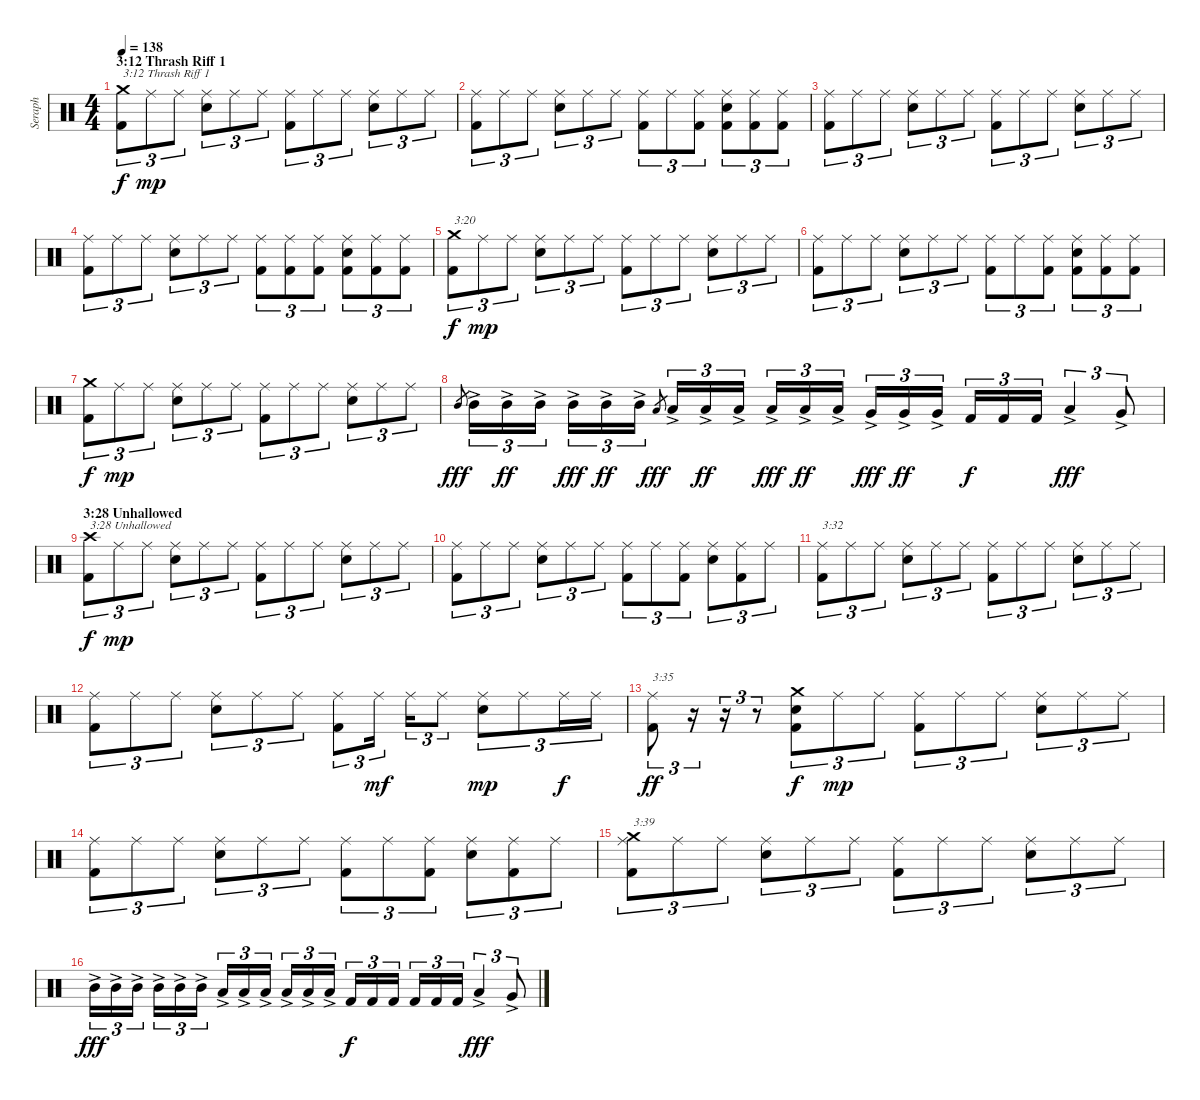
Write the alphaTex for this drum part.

\track ("Seraph" "Seraph") {instrument percussion}
\staff {score}
\articulation defaults
\ts (4 4)
\section ("" "3:12 Thrash Riff 1")
\tempo 138
\clef neutral
\ks c
("Kick (hit) 2" "Crash medium (hit)").8{tu (3 2) txt "3:12 Thrash Riff 1" dy f} "Ride (middle)".8{tu (3 2) dy mp} "Ride (middle)".8{tu (3 2)} ("Electric Snare (hit)" "Ride (middle)").8{tu (3 2)} "Ride (middle)".8{tu (3 2)} "Ride (middle)".8{tu (3 2)} ("Kick (hit) 2" "Ride (middle)").8{tu (3 2)} "Ride (middle)".8{tu (3 2)} "Ride (middle)".8{tu (3 2)} ("Electric Snare (hit)" "Ride (middle)").8{tu (3 2)} "Ride (middle)".8{tu (3 2)} "Ride (middle)".8{tu (3 2)} |
("Kick (hit) 2" "Ride (middle)").8{tu (3 2)} "Ride (middle)".8{tu (3 2)} "Ride (middle)".8{tu (3 2)} ("Electric Snare (hit)" "Ride (middle)").8{tu (3 2)} "Ride (middle)".8{tu (3 2)} "Ride (middle)".8{tu (3 2)} ("Kick (hit) 2" "Ride (middle)").8{tu (3 2)} "Ride (middle)".8{tu (3 2)} ("Kick (hit) 2" "Ride (middle)").8{tu (3 2)} ("Kick (hit) 2" "Electric Snare (hit)" "Ride (middle)").8{tu (3 2)} ("Kick (hit) 2" "Ride (middle)").8{tu (3 2)} ("Kick (hit) 2" "Ride (middle)").8{tu (3 2)} |
("Kick (hit) 2" "Ride (middle)").8{tu (3 2)} "Ride (middle)".8{tu (3 2)} "Ride (middle)".8{tu (3 2)} ("Electric Snare (hit)" "Ride (middle)").8{tu (3 2)} "Ride (middle)".8{tu (3 2)} "Ride (middle)".8{tu (3 2)} ("Kick (hit) 2" "Ride (middle)").8{tu (3 2)} "Ride (middle)".8{tu (3 2)} "Ride (middle)".8{tu (3 2)} ("Electric Snare (hit)" "Ride (middle)").8{tu (3 2)} "Ride (middle)".8{tu (3 2)} "Ride (middle)".8{tu (3 2)} |
("Kick (hit) 2" "Ride (middle)").8{tu (3 2)} "Ride (middle)".8{tu (3 2)} "Ride (middle)".8{tu (3 2)} ("Electric Snare (hit)" "Ride (middle)").8{tu (3 2)} "Ride (middle)".8{tu (3 2)} "Ride (middle)".8{tu (3 2)} ("Kick (hit) 2" "Ride (middle)").8{tu (3 2)} ("Kick (hit) 2" "Ride (middle)").8{tu (3 2)} ("Kick (hit) 2" "Ride (middle)").8{tu (3 2)} ("Kick (hit) 2" "Electric Snare (hit)" "Ride (middle)").8{tu (3 2)} ("Kick (hit) 2" "Ride (middle)").8{tu (3 2)} ("Kick (hit) 2" "Ride (middle)").8{tu (3 2)} |
("Kick (hit) 2" "Crash medium (hit)").8{tu (3 2) txt "3:20" dy f} "Ride (middle)".8{tu (3 2) dy mp} "Ride (middle)".8{tu (3 2)} ("Electric Snare (hit)" "Ride (middle)").8{tu (3 2)} "Ride (middle)".8{tu (3 2)} "Ride (middle)".8{tu (3 2)} ("Kick (hit) 2" "Ride (middle)").8{tu (3 2)} "Ride (middle)".8{tu (3 2)} "Ride (middle)".8{tu (3 2)} ("Electric Snare (hit)" "Ride (middle)").8{tu (3 2)} "Ride (middle)".8{tu (3 2)} "Ride (middle)".8{tu (3 2)} |
("Kick (hit) 2" "Ride (middle)").8{tu (3 2)} "Ride (middle)".8{tu (3 2)} "Ride (middle)".8{tu (3 2)} ("Electric Snare (hit)" "Ride (middle)").8{tu (3 2)} "Ride (middle)".8{tu (3 2)} "Ride (middle)".8{tu (3 2)} ("Kick (hit) 2" "Ride (middle)").8{tu (3 2)} "Ride (middle)".8{tu (3 2)} ("Kick (hit) 2" "Ride (middle)").8{tu (3 2)} ("Kick (hit) 2" "Electric Snare (hit)" "Ride (middle)").8{tu (3 2)} ("Kick (hit) 2" "Ride (middle)").8{tu (3 2)} ("Kick (hit) 2" "Ride (middle)").8{tu (3 2)} |
("Kick (hit) 2" "Crash medium (hit)").8{tu (3 2) dy f} "Ride (middle)".8{tu (3 2) dy mp} "Ride (middle)".8{tu (3 2)} ("Electric Snare (hit)" "Ride (middle)").8{tu (3 2)} "Ride (middle)".8{tu (3 2)} "Ride (middle)".8{tu (3 2)} ("Kick (hit) 2" "Ride (middle)").8{tu (3 2)} "Ride (middle)".8{tu (3 2)} "Ride (middle)".8{tu (3 2)} ("Electric Snare (hit)" "Ride (middle)").8{tu (3 2)} "Ride (middle)".8{tu (3 2)} "Ride (middle)".8{tu (3 2)} |
"Mid Tom (hit)".8{gr dy fff} "Mid Tom (hit)"{ac}.16{tu (3 2)} "Mid Tom (hit)"{ac}.16{tu (3 2) dy ff} "Mid Tom (hit)"{ac}.16{tu (3 2)} "Mid Tom (hit)"{ac}.16{tu (3 2) dy fff} "Mid Tom (hit)"{ac}.16{tu (3 2) dy ff} "Mid Tom (hit)"{ac}.16{tu (3 2)} "Low Tom (hit)".8{gr dy fff} "Low Tom (hit)"{ac}.16{tu (3 2)} "Low Tom (hit)"{ac}.16{tu (3 2) dy ff} "Low Tom (hit)"{ac}.16{tu (3 2)} "Low Tom (hit)"{ac}.16{tu (3 2) dy fff} "Low Tom (hit)"{ac}.16{tu (3 2) dy ff} "Low Tom (hit)"{ac}.16{tu (3 2)} "Very Low Tom (hit)"{ac}.16{tu (3 2) dy fff} "Very Low Tom (hit)"{ac}.16{tu (3 2) dy ff} "Very Low Tom (hit)"{ac}.16{tu (3 2)} "Kick (hit) 2".16{tu (3 2) dy f} "Kick (hit) 2".16{tu (3 2)} "Kick (hit) 2".16{tu (3 2)} "Low Tom (hit)"{ac}.4{tu (3 2) dy fff} "Very Low Tom (hit)"{ac}.8{tu (3 2)} |
\section ("" "3:28 Unhallowed")
("Kick (hit) 2" "Crash high (hit)").8{tu (3 2) txt "3:28 Unhallowed" dy f} "Ride (middle)".8{tu (3 2) dy mp} "Ride (middle)".8{tu (3 2)} ("Electric Snare (hit)" "Ride (middle)").8{tu (3 2)} "Ride (middle)".8{tu (3 2)} "Ride (middle)".8{tu (3 2)} ("Kick (hit) 2" "Ride (middle)").8{tu (3 2)} "Ride (middle)".8{tu (3 2)} "Ride (middle)".8{tu (3 2)} ("Electric Snare (hit)" "Ride (middle)").8{tu (3 2)} "Ride (middle)".8{tu (3 2)} "Ride (middle)".8{tu (3 2)} |
("Kick (hit) 2" "Ride (middle)").8{tu (3 2)} "Ride (middle)".8{tu (3 2)} "Ride (middle)".8{tu (3 2)} ("Electric Snare (hit)" "Ride (middle)").8{tu (3 2)} "Ride (middle)".8{tu (3 2)} "Ride (middle)".8{tu (3 2)} ("Kick (hit) 2" "Ride (middle)").8{tu (3 2)} "Ride (middle)".8{tu (3 2)} ("Kick (hit) 2" "Ride (middle)").8{tu (3 2)} ("Electric Snare (hit)" "Ride (middle)").8{tu (3 2)} ("Kick (hit) 2" "Ride (middle)").8{tu (3 2)} "Ride (middle)".8{tu (3 2)} |
("Kick (hit) 2" "Ride (middle)").8{tu (3 2) txt "3:32"} "Ride (middle)".8{tu (3 2)} "Ride (middle)".8{tu (3 2)} ("Electric Snare (hit)" "Ride (middle)").8{tu (3 2)} "Ride (middle)".8{tu (3 2)} "Ride (middle)".8{tu (3 2)} ("Kick (hit) 2" "Ride (middle)").8{tu (3 2)} "Ride (middle)".8{tu (3 2)} "Ride (middle)".8{tu (3 2)} ("Electric Snare (hit)" "Ride (middle)").8{tu (3 2)} "Ride (middle)".8{tu (3 2)} "Ride (middle)".8{tu (3 2)} |
("Kick (hit) 2" "Ride (middle)").8{tu (3 2)} "Ride (middle)".8{tu (3 2)} "Ride (middle)".8{tu (3 2)} ("Electric Snare (hit)" "Ride (middle)").8{tu (3 2)} "Ride (middle)".8{tu (3 2)} "Ride (middle)".8{tu (3 2)} ("Kick (hit) 2" "Ride (middle)").8{tu (3 2)} "Ride (middle)".16{tu (3 2) dy mf} "Ride (middle)".16{tu (3 2)} "Ride (middle)".8{tu (3 2)} ("Electric Snare (hit)" "Ride (middle)").8{tu (3 2) dy mp} "Ride (middle)".8{tu (3 2)} "Ride (middle)".16{tu (3 2) dy f} "Ride (middle)".16{tu (3 2)} |
("Kick (hit) 2" "Ride (middle)").8{tu (3 2) txt "3:35" dy ff} r.16{tu (3 2)} r.16{tu (3 2)} r.8{tu (3 2)} ("Kick (hit) 2" "Electric Snare (hit)" "Crash medium (hit)").8{tu (3 2) dy f} "Ride (middle)".8{tu (3 2) dy mp} "Ride (middle)".8{tu (3 2)} ("Kick (hit) 2" "Ride (middle)").8{tu (3 2)} "Ride (middle)".8{tu (3 2)} "Ride (middle)".8{tu (3 2)} ("Electric Snare (hit)" "Ride (middle)").8{tu (3 2)} "Ride (middle)".8{tu (3 2)} "Ride (middle)".8{tu (3 2)} |
("Kick (hit) 2" "Ride (middle)").8{tu (3 2)} "Ride (middle)".8{tu (3 2)} "Ride (middle)".8{tu (3 2)} ("Electric Snare (hit)" "Ride (middle)").8{tu (3 2)} "Ride (middle)".8{tu (3 2)} "Ride (middle)".8{tu (3 2)} ("Kick (hit) 2" "Ride (middle)").8{tu (3 2)} "Ride (middle)".8{tu (3 2)} ("Kick (hit) 2" "Ride (middle)").8{tu (3 2)} ("Electric Snare (hit)" "Ride (middle)").8{tu (3 2)} ("Kick (hit) 2" "Ride (middle)").8{tu (3 2)} "Ride (middle)".8{tu (3 2)} |
("Kick (hit) 2" "Ride (middle)" "Crash medium (hit)").8{tu (3 2) txt "3:39"} "Ride (middle)".8{tu (3 2)} "Ride (middle)".8{tu (3 2)} ("Electric Snare (hit)" "Ride (middle)").8{tu (3 2)} "Ride (middle)".8{tu (3 2)} "Ride (middle)".8{tu (3 2)} ("Kick (hit) 2" "Ride (middle)").8{tu (3 2)} "Ride (middle)".8{tu (3 2)} "Ride (middle)".8{tu (3 2)} ("Electric Snare (hit)" "Ride (middle)").8{tu (3 2)} "Ride (middle)".8{tu (3 2)} "Ride (middle)".8{tu (3 2)} |
"Mid Tom (hit)"{ac}.16{tu (3 2) dy fff} "Mid Tom (hit)"{ac}.16{tu (3 2)} "Mid Tom (hit)"{ac}.16{tu (3 2)} "Mid Tom (hit)"{ac}.16{tu (3 2)} "Mid Tom (hit)"{ac}.16{tu (3 2)} "Mid Tom (hit)"{ac}.16{tu (3 2)} "Low Tom (hit)"{ac}.16{tu (3 2)} "Low Tom (hit)"{ac}.16{tu (3 2)} "Low Tom (hit)"{ac}.16{tu (3 2)} "Low Tom (hit)"{ac}.16{tu (3 2)} "Low Tom (hit)"{ac}.16{tu (3 2)} "Low Tom (hit)"{ac}.16{tu (3 2)} "Kick (hit) 2".16{tu (3 2) dy f} "Kick (hit) 2".16{tu (3 2)} "Kick (hit) 2".16{tu (3 2)} "Kick (hit) 2".16{tu (3 2)} "Kick (hit) 2".16{tu (3 2)} "Kick (hit) 2".16{tu (3 2)} "Low Tom (hit)"{ac}.4{tu (3 2) dy fff} "Very Low Tom (hit)"{ac}.8{tu (3 2)}
